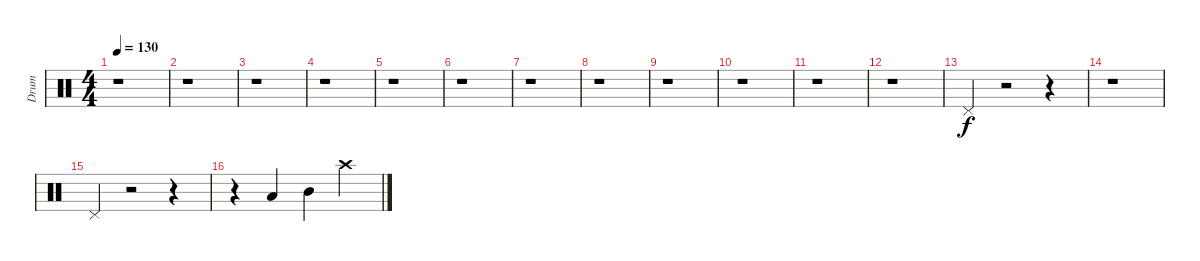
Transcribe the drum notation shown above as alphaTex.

\track ("Drum" "Drum") {instrument percussion}
\staff {score}
\articulation defaults
\ts (4 4)
\tempo 130
\clef neutral
\ks c
r.1{dy f} |
r.1 |
r.1 |
r.1 |
r.1 |
r.1 |
r.1 |
r.1 |
r.1 |
r.1 |
r.1 |
r.1 |
"Pedal Hi-Hat (hit)".4 r.2 r.4 |
r.1 |
"Pedal Hi-Hat (hit)".4 r.2 r.4 |
r.4 "Low Tom (hit)".4 "Mid Tom (hit)".4 "Crash high (hit)".4
